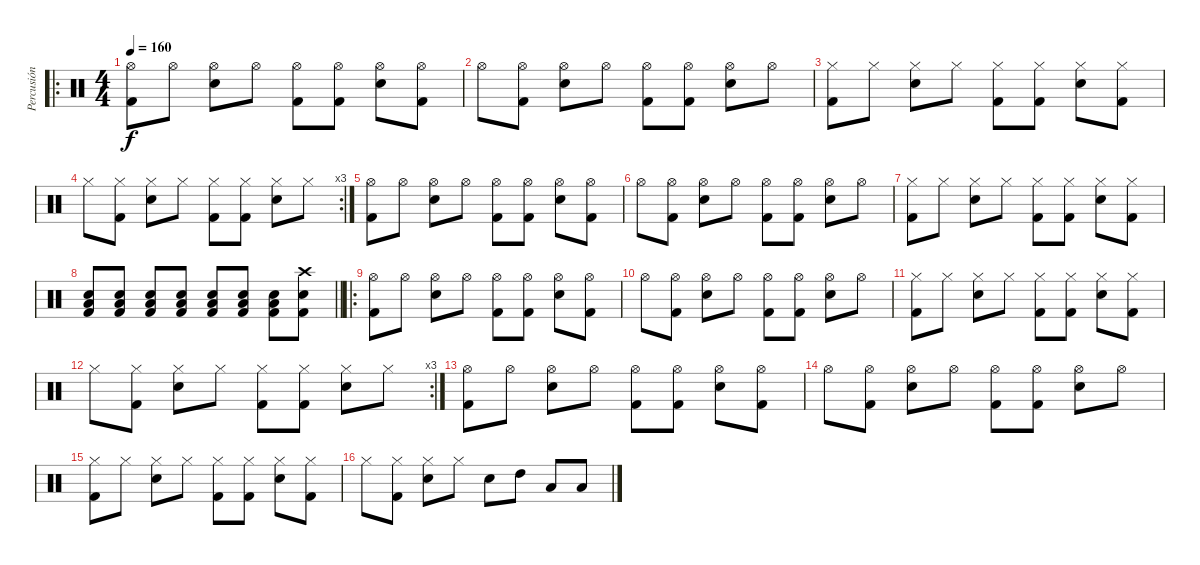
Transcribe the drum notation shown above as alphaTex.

\track ("Percusión (Nevi)" "Percusión ") {instrument percussion}
\staff {score}
\articulation defaults
\ro
\ts (4 4)
\tempo 160
\clef neutral
\ks c
("Kick (hit) 2" "Hi-Hat (open)").8{dy f} "Hi-Hat (open)".8 ("Hi-Hat (open)" "Snare (hit) 2").8 "Hi-Hat (open)".8 ("Kick (hit) 2" "Hi-Hat (open)").8 ("Kick (hit) 2" "Hi-Hat (open)").8 ("Hi-Hat (open)" "Snare (hit) 2").8 ("Kick (hit) 2" "Hi-Hat (open)").8 |
"Hi-Hat (open)".8 ("Kick (hit) 2" "Hi-Hat (open)").8 ("Hi-Hat (open)" "Snare (hit) 2").8 "Hi-Hat (open)".8 ("Kick (hit) 2" "Hi-Hat (open)").8 ("Kick (hit) 2" "Hi-Hat (open)").8 ("Hi-Hat (open)" "Snare (hit) 2").8 "Hi-Hat (open)".8 |
("Kick (hit) 2" "Hi-Hat (closed)").8 "Hi-Hat (closed)".8 ("Hi-Hat (closed)" "Snare (hit) 2").8 "Hi-Hat (closed)".8 ("Kick (hit) 2" "Hi-Hat (closed)").8 ("Kick (hit) 2" "Hi-Hat (closed)").8 ("Hi-Hat (closed)" "Snare (hit) 2").8 ("Kick (hit) 2" "Hi-Hat (closed)").8 |
\rc 3 "Hi-Hat (closed)".8
("Kick (hit) 2" "Hi-Hat (closed)").8 ("Hi-Hat (closed)" "Snare (hit) 2").8 "Hi-Hat (closed)".8 ("Kick (hit) 2" "Hi-Hat (closed)").8 ("Kick (hit) 2" "Hi-Hat (closed)").8 ("Hi-Hat (closed)" "Snare (hit) 2").8 "Hi-Hat (closed)".8 |
("Kick (hit) 2" "Hi-Hat (open)").8 "Hi-Hat (open)".8 ("Hi-Hat (open)" "Snare (hit) 2").8 "Hi-Hat (open)".8 ("Kick (hit) 2" "Hi-Hat (open)").8 ("Kick (hit) 2" "Hi-Hat (open)").8 ("Hi-Hat (open)" "Snare (hit) 2").8 ("Kick (hit) 2" "Hi-Hat (open)").8 |
"Hi-Hat (open)".8 ("Kick (hit) 2" "Hi-Hat (open)").8 ("Hi-Hat (open)" "Snare (hit) 2").8 "Hi-Hat (open)".8 ("Kick (hit) 2" "Hi-Hat (open)").8 ("Kick (hit) 2" "Hi-Hat (open)").8 ("Hi-Hat (open)" "Snare (hit) 2").8 "Hi-Hat (open)".8 |
("Kick (hit) 2" "Hi-Hat (closed)").8 "Hi-Hat (closed)".8 ("Hi-Hat (closed)" "Snare (hit) 2").8 "Hi-Hat (closed)".8 ("Kick (hit) 2" "Hi-Hat (closed)").8 ("Kick (hit) 2" "Hi-Hat (closed)").8 ("Hi-Hat (closed)" "Snare (hit) 2").8 ("Kick (hit) 2" "Hi-Hat (closed)").8 |
\barLineRight lightlight
("Kick (hit) 2" "Snare (hit) 2" "Low Tom (hit)").8 ("Kick (hit) 2" "Snare (hit) 2" "Low Tom (hit)").8 ("Kick (hit) 2" "Snare (hit) 2" "Low Tom (hit)").8 ("Kick (hit) 2" "Snare (hit) 2" "Low Tom (hit)").8 ("Kick (hit) 2" "Snare (hit) 2" "Low Tom (hit)").8 ("Kick (hit) 2" "Snare (hit) 2" "Low Tom (hit)").8 ("Kick (hit) 2" "Snare (hit) 2" "Low Tom (hit)").8 ("Kick (hit) 2" "Snare (hit) 2" "Crash high (hit)").8 |
\ro
("Kick (hit) 2" "Hi-Hat (open)").8 "Hi-Hat (open)".8 ("Hi-Hat (open)" "Snare (hit) 2").8 "Hi-Hat (open)".8 ("Kick (hit) 2" "Hi-Hat (open)").8 ("Kick (hit) 2" "Hi-Hat (open)").8 ("Hi-Hat (open)" "Snare (hit) 2").8 ("Kick (hit) 2" "Hi-Hat (open)").8 |
"Hi-Hat (open)".8 ("Kick (hit) 2" "Hi-Hat (open)").8 ("Hi-Hat (open)" "Snare (hit) 2").8 "Hi-Hat (open)".8 ("Kick (hit) 2" "Hi-Hat (open)").8 ("Kick (hit) 2" "Hi-Hat (open)").8 ("Hi-Hat (open)" "Snare (hit) 2").8 "Hi-Hat (open)".8 |
("Kick (hit) 2" "Hi-Hat (closed)").8 "Hi-Hat (closed)".8 ("Hi-Hat (closed)" "Snare (hit) 2").8 "Hi-Hat (closed)".8 ("Kick (hit) 2" "Hi-Hat (closed)").8 ("Kick (hit) 2" "Hi-Hat (closed)").8 ("Hi-Hat (closed)" "Snare (hit) 2").8 ("Kick (hit) 2" "Hi-Hat (closed)").8 |
\rc 3 "Hi-Hat (closed)".8
("Kick (hit) 2" "Hi-Hat (closed)").8 ("Hi-Hat (closed)" "Snare (hit) 2").8 "Hi-Hat (closed)".8 ("Kick (hit) 2" "Hi-Hat (closed)").8 ("Kick (hit) 2" "Hi-Hat (closed)").8 ("Hi-Hat (closed)" "Snare (hit) 2").8 "Hi-Hat (closed)".8 |
("Kick (hit) 2" "Hi-Hat (open)").8 "Hi-Hat (open)".8 ("Hi-Hat (open)" "Snare (hit) 2").8 "Hi-Hat (open)".8 ("Kick (hit) 2" "Hi-Hat (open)").8 ("Kick (hit) 2" "Hi-Hat (open)").8 ("Hi-Hat (open)" "Snare (hit) 2").8 ("Kick (hit) 2" "Hi-Hat (open)").8 |
"Hi-Hat (open)".8 ("Kick (hit) 2" "Hi-Hat (open)").8 ("Hi-Hat (open)" "Snare (hit) 2").8 "Hi-Hat (open)".8 ("Kick (hit) 2" "Hi-Hat (open)").8 ("Kick (hit) 2" "Hi-Hat (open)").8 ("Hi-Hat (open)" "Snare (hit) 2").8 "Hi-Hat (open)".8 |
("Kick (hit) 2" "Hi-Hat (closed)").8 "Hi-Hat (closed)".8 ("Hi-Hat (closed)" "Snare (hit) 2").8 "Hi-Hat (closed)".8 ("Kick (hit) 2" "Hi-Hat (closed)").8 ("Kick (hit) 2" "Hi-Hat (closed)").8 ("Hi-Hat (closed)" "Snare (hit) 2").8 ("Kick (hit) 2" "Hi-Hat (closed)").8 |
"Hi-Hat (closed)".8 ("Kick (hit) 2" "Hi-Hat (closed)").8 ("Hi-Hat (closed)" "Snare (hit) 2").8 "Hi-Hat (closed)".8 "Snare (hit) 2".8 "High Tom (hit)".8 "Low Tom (hit)".8 "Low Tom (hit)".8
